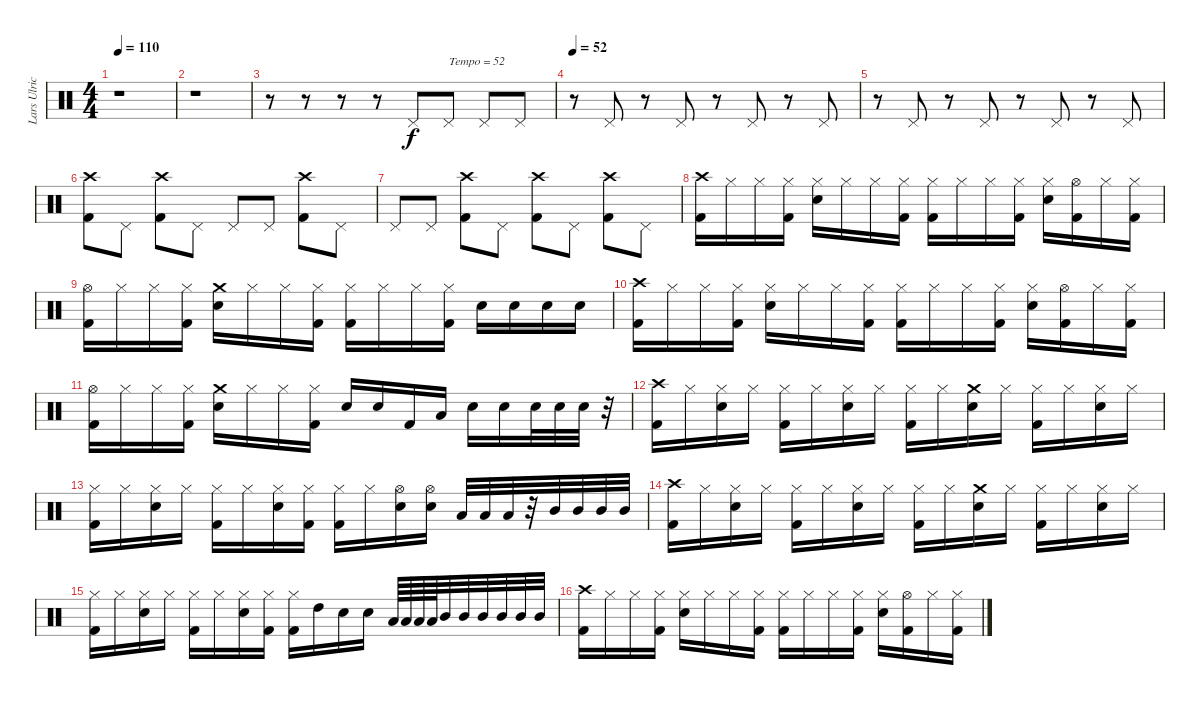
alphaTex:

\track ("Lars Ulrich" "Lars Ulric") {instrument percussion}
\staff {score}
\articulation defaults
\ts (4 4)
\tempo 110
\clef neutral
\ks c
r.1{dy f} |
r.1 |
r.8 r.8 r.8 r.8 "Pedal Hi-Hat (hit)".8 "Pedal Hi-Hat (hit)".8{txt "Tempo = 52"} "Pedal Hi-Hat (hit)".8 "Pedal Hi-Hat (hit)".8 |
\tempo 52
r.8 "Pedal Hi-Hat (hit)".8 r.8 "Pedal Hi-Hat (hit)".8 r.8 "Pedal Hi-Hat (hit)".8 r.8 "Pedal Hi-Hat (hit)".8 |
r.8 "Pedal Hi-Hat (hit)".8 r.8 "Pedal Hi-Hat (hit)".8 r.8 "Pedal Hi-Hat (hit)".8 r.8 "Pedal Hi-Hat (hit)".8 |
("Crash high (hit)" "Kick (hit) 2").8 "Pedal Hi-Hat (hit)".8 ("Crash high (hit)" "Kick (hit) 2").8 "Pedal Hi-Hat (hit)".8 "Pedal Hi-Hat (hit)".8 "Pedal Hi-Hat (hit)".8 ("Crash high (hit)" "Kick (hit) 2").8 "Pedal Hi-Hat (hit)".8 |
"Pedal Hi-Hat (hit)".8 "Pedal Hi-Hat (hit)".8 ("Crash high (hit)" "Kick (hit) 2").8 "Pedal Hi-Hat (hit)".8 ("Crash high (hit)" "Kick (hit) 2").8 "Pedal Hi-Hat (hit)".8 ("Crash high (hit)" "Kick (hit) 2").8 "Pedal Hi-Hat (hit)".8 |
("Crash high (hit)" "Kick (hit) 2").16 "Hi-Hat (closed)".16 "Hi-Hat (closed)".16 ("Hi-Hat (closed)" "Kick (hit) 2").16 ("Hi-Hat (closed)" "Snare (hit) 2").16 "Hi-Hat (closed)".16 "Hi-Hat (closed)".16 ("Hi-Hat (closed)" "Kick (hit) 2").16 ("Hi-Hat (closed)" "Kick (hit) 2").16 "Hi-Hat (closed)".16 "Hi-Hat (closed)".16 ("Hi-Hat (closed)" "Kick (hit) 2").16 ("Hi-Hat (closed)" "Snare (hit) 2").16 ("Hi-Hat (open)" "Kick (hit) 2").16 "Hi-Hat (closed)".16 ("Hi-Hat (closed)" "Kick (hit) 2").16 |
("Hi-Hat (open)" "Kick (hit) 2").16 "Hi-Hat (closed)".16 "Hi-Hat (closed)".16 ("Hi-Hat (closed)" "Kick (hit) 2").16 ("Crash medium (hit)" "Snare (hit) 2").16 "Hi-Hat (closed)".16 "Hi-Hat (closed)".16 ("Hi-Hat (closed)" "Kick (hit) 2").16 ("Hi-Hat (closed)" "Kick (hit) 2").16 "Hi-Hat (closed)".16 "Hi-Hat (closed)".16 ("Hi-Hat (closed)" "Kick (hit) 2").16 "Snare (hit) 2".16 "Snare (hit) 2".16 "Snare (hit) 2".16 "Snare (hit) 2".16 |
("Crash high (hit)" "Kick (hit) 2").16 "Hi-Hat (closed)".16 "Hi-Hat (closed)".16 ("Hi-Hat (closed)" "Kick (hit) 2").16 ("Hi-Hat (closed)" "Snare (hit) 2").16 "Hi-Hat (closed)".16 "Hi-Hat (closed)".16 ("Hi-Hat (closed)" "Kick (hit) 2").16 ("Hi-Hat (closed)" "Kick (hit) 2").16 "Hi-Hat (closed)".16 "Hi-Hat (closed)".16 ("Hi-Hat (closed)" "Kick (hit) 2").16 ("Hi-Hat (closed)" "Snare (hit) 2").16 ("Hi-Hat (open)" "Kick (hit) 2").16 "Hi-Hat (closed)".16 ("Hi-Hat (closed)" "Kick (hit) 2").16 |
("Hi-Hat (open)" "Kick (hit) 2").16 "Hi-Hat (closed)".16 "Hi-Hat (closed)".16 ("Hi-Hat (closed)" "Kick (hit) 2").16 ("Crash medium (hit)" "Snare (hit) 2").16 "Hi-Hat (closed)".16 "Hi-Hat (closed)".16 ("Hi-Hat (closed)" "Kick (hit) 2").16 "Snare (hit) 2".16 "Snare (hit) 2".16 "Kick (hit) 2".16 "Low Tom (hit)".16 "Snare (hit) 2".16 "Snare (hit) 2".16 "Snare (hit) 2".32 "Snare (hit) 2".32 "Snare (hit) 2".32 r.32 |
("Crash high (hit)" "Kick (hit) 2").16 "Hi-Hat (closed)".16 ("Hi-Hat (closed)" "Snare (hit) 2").16 "Hi-Hat (closed)".16 ("Hi-Hat (closed)" "Kick (hit) 2").16 "Hi-Hat (closed)".16 ("Hi-Hat (closed)" "Snare (hit) 2").16 "Hi-Hat (closed)".16 ("Hi-Hat (closed)" "Kick (hit) 2").16 "Hi-Hat (closed)".16 ("Crash medium (hit)" "Snare (hit) 2").16 "Hi-Hat (closed)".16 ("Hi-Hat (closed)" "Kick (hit) 2").16 "Hi-Hat (closed)".16 ("Hi-Hat (closed)" "Snare (hit) 2").16 "Hi-Hat (closed)".16 |
("Hi-Hat (closed)" "Kick (hit) 2").16 "Hi-Hat (closed)".16 ("Hi-Hat (closed)" "Snare (hit) 2").16 "Hi-Hat (closed)".16 ("Hi-Hat (closed)" "Kick (hit) 2").16 "Hi-Hat (closed)".16 ("Hi-Hat (closed)" "Snare (hit) 2").16 ("Hi-Hat (closed)" "Kick (hit) 2").16 ("Hi-Hat (closed)" "Kick (hit) 2").16 "Hi-Hat (closed)".16 ("Hi-Hat (open)" "Snare (hit) 2").16 ("Hi-Hat (open)" "Snare (hit) 2").16 "Low Tom (hit)".32 "Low Tom (hit)".32 "Low Tom (hit)".32 r.32 "Mid Tom (hit)".32 "Mid Tom (hit)".32 "Mid Tom (hit)".32 "Mid Tom (hit)".32 |
("Crash high (hit)" "Kick (hit) 2").16 "Hi-Hat (closed)".16 ("Hi-Hat (closed)" "Snare (hit) 2").16 "Hi-Hat (closed)".16 ("Hi-Hat (closed)" "Kick (hit) 2").16 "Hi-Hat (closed)".16 ("Hi-Hat (closed)" "Snare (hit) 2").16 "Hi-Hat (closed)".16 ("Hi-Hat (closed)" "Kick (hit) 2").16 "Hi-Hat (closed)".16 ("Crash medium (hit)" "Snare (hit) 2").16 "Hi-Hat (closed)".16 ("Hi-Hat (closed)" "Kick (hit) 2").16 "Hi-Hat (closed)".16 ("Hi-Hat (closed)" "Snare (hit) 2").16 "Hi-Hat (closed)".16 |
("Hi-Hat (closed)" "Kick (hit) 2").16 "Hi-Hat (closed)".16 ("Hi-Hat (closed)" "Snare (hit) 2").16 "Hi-Hat (closed)".16 ("Hi-Hat (closed)" "Kick (hit) 2").16 "Hi-Hat (closed)".16 ("Hi-Hat (closed)" "Snare (hit) 2").16 ("Hi-Hat (closed)" "Kick (hit) 2").16 ("Hi-Hat (closed)" "Kick (hit) 2").16 "High Tom (hit)".16 "Snare (hit) 2".16 "Snare (hit) 2".16 "Low Tom (hit)".64 "Low Tom (hit)".64 "Low Tom (hit)".64 "Low Tom (hit)".64 "Mid Tom (hit)".32 "Mid Tom (hit)".32 "Mid Tom (hit)".32 "Mid Tom (hit)".32 "Mid Tom (hit)".32 "Mid Tom (hit)".32 |
("Crash high (hit)" "Kick (hit) 2").16 "Hi-Hat (closed)".16 "Hi-Hat (closed)".16 ("Hi-Hat (closed)" "Kick (hit) 2").16 ("Hi-Hat (closed)" "Snare (hit) 2").16 "Hi-Hat (closed)".16 "Hi-Hat (closed)".16 ("Hi-Hat (closed)" "Kick (hit) 2").16 ("Hi-Hat (closed)" "Kick (hit) 2").16 "Hi-Hat (closed)".16 "Hi-Hat (closed)".16 ("Hi-Hat (closed)" "Kick (hit) 2").16 ("Hi-Hat (closed)" "Snare (hit) 2").16 ("Hi-Hat (open)" "Kick (hit) 2").16 "Hi-Hat (closed)".16 ("Hi-Hat (closed)" "Kick (hit) 2").16
